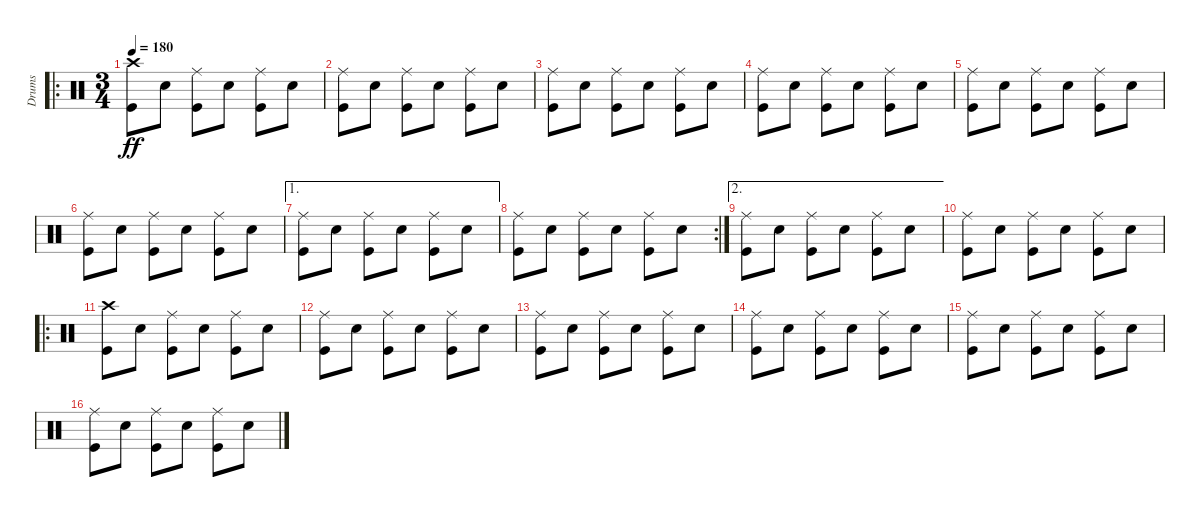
\track ("Drums" "Drums") {instrument percussion}
\staff {score}
\articulation defaults
\ro
\ts (3 4)
\tempo 180
\clef neutral
\ks c
("Crash high (hit)" "Kick (hit)").8{dy ff} "Snare (hit) 2".8 ("Ride (middle)" "Kick (hit)").8 "Snare (hit) 2".8 ("Ride (middle)" "Kick (hit)").8 "Snare (hit) 2".8 |
("Ride (middle)" "Kick (hit)").8 "Snare (hit) 2".8 ("Ride (middle)" "Kick (hit)").8 "Snare (hit) 2".8 ("Ride (middle)" "Kick (hit)").8 "Snare (hit) 2".8 |
("Ride (middle)" "Kick (hit)").8 "Snare (hit) 2".8 ("Ride (middle)" "Kick (hit)").8 "Snare (hit) 2".8 ("Ride (middle)" "Kick (hit)").8 "Snare (hit) 2".8 |
("Ride (middle)" "Kick (hit)").8 "Snare (hit) 2".8 ("Ride (middle)" "Kick (hit)").8 "Snare (hit) 2".8 ("Ride (middle)" "Kick (hit)").8 "Snare (hit) 2".8 |
("Ride (middle)" "Kick (hit)").8 "Snare (hit) 2".8 ("Ride (middle)" "Kick (hit)").8 "Snare (hit) 2".8 ("Ride (middle)" "Kick (hit)").8 "Snare (hit) 2".8 |
("Ride (middle)" "Kick (hit)").8 "Snare (hit) 2".8 ("Ride (middle)" "Kick (hit)").8 "Snare (hit) 2".8 ("Ride (middle)" "Kick (hit)").8 "Snare (hit) 2".8 |
\ae 1
("Ride (middle)" "Kick (hit)").8 "Snare (hit) 2".8 ("Ride (middle)" "Kick (hit)").8 "Snare (hit) 2".8 ("Ride (middle)" "Kick (hit)").8 "Snare (hit) 2".8 |
\rc 2
("Ride (middle)" "Kick (hit)").8 "Snare (hit) 2".8 ("Ride (middle)" "Kick (hit)").8 "Snare (hit) 2".8 ("Ride (middle)" "Kick (hit)").8 "Snare (hit) 2".8 |
\ae 2
("Ride (middle)" "Kick (hit)").8 "Snare (hit) 2".8 ("Ride (middle)" "Kick (hit)").8 "Snare (hit) 2".8 ("Ride (middle)" "Kick (hit)").8 "Snare (hit) 2".8 |
("Ride (middle)" "Kick (hit)").8 "Snare (hit) 2".8 ("Ride (middle)" "Kick (hit)").8 "Snare (hit) 2".8 ("Ride (middle)" "Kick (hit)").8 "Snare (hit) 2".8 |
\ro
("Crash high (hit)" "Kick (hit)").8 "Snare (hit) 2".8 ("Ride (middle)" "Kick (hit)").8 "Snare (hit) 2".8 ("Ride (middle)" "Kick (hit)").8 "Snare (hit) 2".8 |
("Ride (middle)" "Kick (hit)").8 "Snare (hit) 2".8 ("Ride (middle)" "Kick (hit)").8 "Snare (hit) 2".8 ("Ride (middle)" "Kick (hit)").8 "Snare (hit) 2".8 |
("Ride (middle)" "Kick (hit)").8 "Snare (hit) 2".8 ("Ride (middle)" "Kick (hit)").8 "Snare (hit) 2".8 ("Ride (middle)" "Kick (hit)").8 "Snare (hit) 2".8 |
("Ride (middle)" "Kick (hit)").8 "Snare (hit) 2".8 ("Ride (middle)" "Kick (hit)").8 "Snare (hit) 2".8 ("Ride (middle)" "Kick (hit)").8 "Snare (hit) 2".8 |
("Ride (middle)" "Kick (hit)").8 "Snare (hit) 2".8 ("Ride (middle)" "Kick (hit)").8 "Snare (hit) 2".8 ("Ride (middle)" "Kick (hit)").8 "Snare (hit) 2".8 |
("Ride (middle)" "Kick (hit)").8 "Snare (hit) 2".8 ("Ride (middle)" "Kick (hit)").8 "Snare (hit) 2".8 ("Ride (middle)" "Kick (hit)").8 "Snare (hit) 2".8
